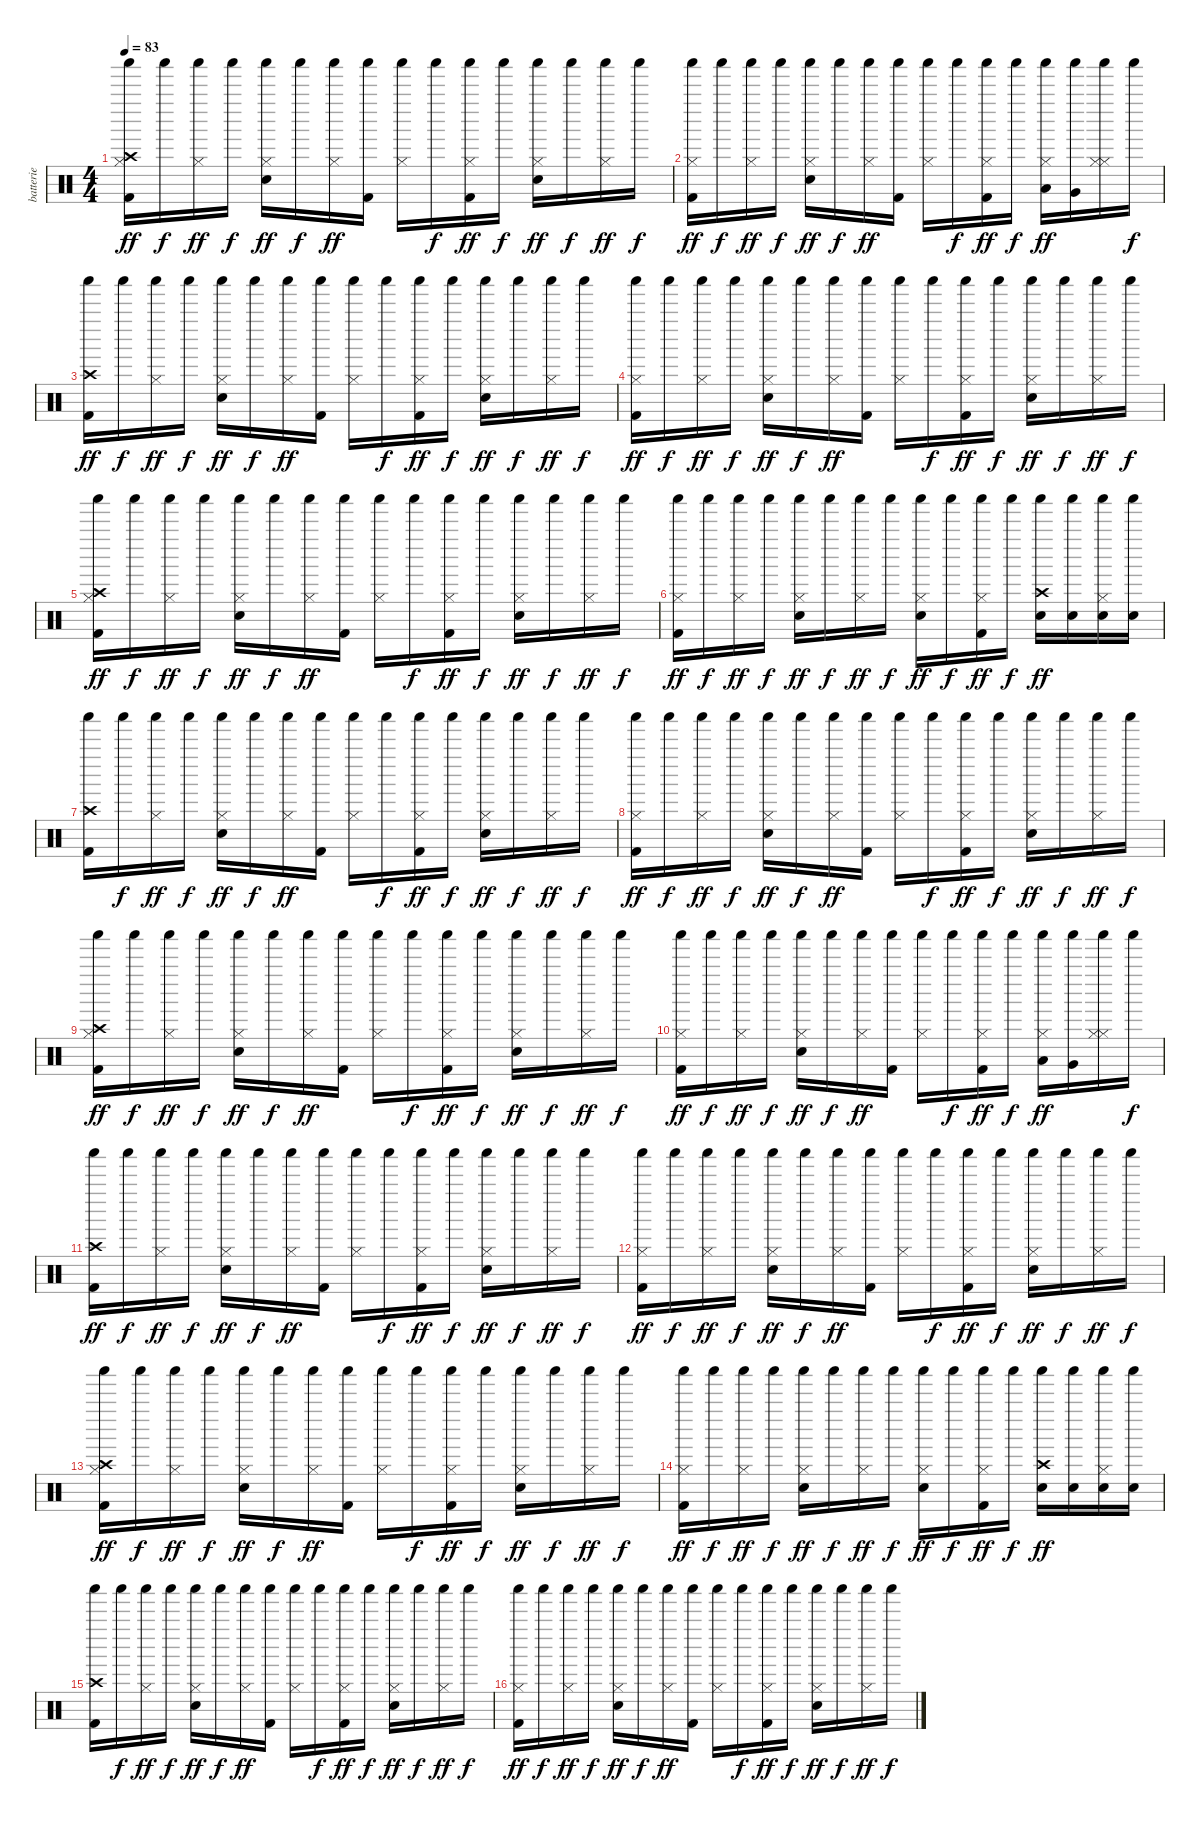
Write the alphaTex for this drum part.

\track ("batterie" "batterie") {instrument percussion}
\staff {score}
\articulation defaults
\ts (4 4)
\tempo 83
\clef neutral
\ks c
("Kick (hit) 2" "Hi-Hat (closed)" "Crash high (hit)" "Shaker (hit)").16{dy ff} "Shaker (hit)".16{dy f} ("Hi-Hat (closed)" "Shaker (hit)").16{dy ff} "Shaker (hit)".16{dy f} ("Snare (hit) 2" "Hi-Hat (closed)" "Shaker (hit)").16{dy ff} "Shaker (hit)".16{dy f} ("Hi-Hat (closed)" "Shaker (hit)").16{dy ff} ("Kick (hit) 2" "Shaker (hit)").16 ("Hi-Hat (closed)" "Shaker (hit)").16 "Shaker (hit)".16{dy f} ("Kick (hit) 2" "Hi-Hat (closed)" "Shaker (hit)").16{dy ff} "Shaker (hit)".16{dy f} ("Snare (hit) 2" "Hi-Hat (closed)" "Shaker (hit)").16{dy ff} "Shaker (hit)".16{dy f} ("Hi-Hat (closed)" "Shaker (hit)").16{dy ff} "Shaker (hit)".16{dy f} |
("Kick (hit) 2" "Hi-Hat (closed)" "Shaker (hit)").16{dy ff} "Shaker (hit)".16{dy f} ("Hi-Hat (closed)" "Shaker (hit)").16{dy ff} "Shaker (hit)".16{dy f} ("Snare (hit) 2" "Hi-Hat (closed)" "Shaker (hit)").16{dy ff} "Shaker (hit)".16{dy f} ("Hi-Hat (closed)" "Shaker (hit)").16{dy ff} ("Kick (hit) 2" "Shaker (hit)").16 ("Hi-Hat (closed)" "Shaker (hit)").16 "Shaker (hit)".16{dy f} ("Kick (hit) 2" "Hi-Hat (closed)" "Shaker (hit)").16{dy ff} "Shaker (hit)".16{dy f} ("Hi-Hat (closed)" "Low Tom (hit)" "Shaker (hit)").16{dy ff} ("Very Low Tom (hit)" "Shaker (hit)").16 ("Hi-Hat (closed)" "Hi-Hat (closed)" "Shaker (hit)").16 "Shaker (hit)".16{dy f} |
("Kick (hit) 2" "Crash high (hit)" "Shaker (hit)").16{dy ff} "Shaker (hit)".16{dy f} ("Hi-Hat (closed)" "Shaker (hit)").16{dy ff} "Shaker (hit)".16{dy f} ("Snare (hit) 2" "Hi-Hat (closed)" "Shaker (hit)").16{dy ff} "Shaker (hit)".16{dy f} ("Hi-Hat (closed)" "Shaker (hit)").16{dy ff} ("Kick (hit) 2" "Shaker (hit)").16 ("Hi-Hat (closed)" "Shaker (hit)").16 "Shaker (hit)".16{dy f} ("Kick (hit) 2" "Hi-Hat (closed)" "Shaker (hit)").16{dy ff} "Shaker (hit)".16{dy f} ("Snare (hit) 2" "Hi-Hat (closed)" "Shaker (hit)").16{dy ff} "Shaker (hit)".16{dy f} ("Hi-Hat (closed)" "Shaker (hit)").16{dy ff} "Shaker (hit)".16{dy f} |
("Kick (hit) 2" "Hi-Hat (closed)" "Shaker (hit)").16{dy ff} "Shaker (hit)".16{dy f} ("Hi-Hat (closed)" "Shaker (hit)").16{dy ff} "Shaker (hit)".16{dy f} ("Snare (hit) 2" "Hi-Hat (closed)" "Shaker (hit)").16{dy ff} "Shaker (hit)".16{dy f} ("Hi-Hat (closed)" "Shaker (hit)").16{dy ff} ("Kick (hit) 2" "Shaker (hit)").16 ("Hi-Hat (closed)" "Shaker (hit)").16 "Shaker (hit)".16{dy f} ("Kick (hit) 2" "Hi-Hat (closed)" "Shaker (hit)").16{dy ff} "Shaker (hit)".16{dy f} ("Snare (hit) 2" "Hi-Hat (closed)" "Shaker (hit)").16{dy ff} "Shaker (hit)".16{dy f} ("Hi-Hat (closed)" "Shaker (hit)").16{dy ff} "Shaker (hit)".16{dy f} |
("Kick (hit) 2" "Hi-Hat (closed)" "Crash high (hit)" "Shaker (hit)").16{dy ff} "Shaker (hit)".16{dy f} ("Hi-Hat (closed)" "Shaker (hit)").16{dy ff} "Shaker (hit)".16{dy f} ("Snare (hit) 2" "Hi-Hat (closed)" "Shaker (hit)").16{dy ff} "Shaker (hit)".16{dy f} ("Hi-Hat (closed)" "Shaker (hit)").16{dy ff} ("Kick (hit) 2" "Shaker (hit)").16 ("Hi-Hat (closed)" "Shaker (hit)").16 "Shaker (hit)".16{dy f} ("Kick (hit) 2" "Hi-Hat (closed)" "Shaker (hit)").16{dy ff} "Shaker (hit)".16{dy f} ("Snare (hit) 2" "Hi-Hat (closed)" "Shaker (hit)").16{dy ff} "Shaker (hit)".16{dy f} ("Hi-Hat (closed)" "Shaker (hit)").16{dy ff} "Shaker (hit)".16{dy f} |
("Kick (hit) 2" "Hi-Hat (closed)" "Shaker (hit)").16{dy ff} "Shaker (hit)".16{dy f} ("Hi-Hat (closed)" "Shaker (hit)").16{dy ff} "Shaker (hit)".16{dy f} ("Snare (hit) 2" "Hi-Hat (closed)" "Shaker (hit)").16{dy ff} "Shaker (hit)".16{dy f} ("Hi-Hat (closed)" "Shaker (hit)").16{dy ff} "Shaker (hit)".16{dy f} ("Snare (hit) 2" "Hi-Hat (closed)" "Shaker (hit)").16{dy ff} "Shaker (hit)".16{dy f} ("Kick (hit) 2" "Hi-Hat (closed)" "Shaker (hit)").16{dy ff} "Shaker (hit)".16{dy f} ("Snare (hit) 2" "Crash high (hit)" "Shaker (hit)").16{dy ff} ("Snare (hit) 2" "Shaker (hit)").16 ("Snare (hit) 2" "Hi-Hat (closed)" "Shaker (hit)").16 ("Snare (hit) 2" "Shaker (hit)").16 |
("Kick (hit) 2" "Crash high (hit)" "Shaker (hit)").16 "Shaker (hit)".16{dy f} ("Hi-Hat (closed)" "Shaker (hit)").16{dy ff} "Shaker (hit)".16{dy f} ("Snare (hit) 2" "Hi-Hat (closed)" "Shaker (hit)").16{dy ff} "Shaker (hit)".16{dy f} ("Hi-Hat (closed)" "Shaker (hit)").16{dy ff} ("Kick (hit) 2" "Shaker (hit)").16 ("Hi-Hat (closed)" "Shaker (hit)").16 "Shaker (hit)".16{dy f} ("Kick (hit) 2" "Hi-Hat (closed)" "Shaker (hit)").16{dy ff} "Shaker (hit)".16{dy f} ("Snare (hit) 2" "Hi-Hat (closed)" "Shaker (hit)").16{dy ff} "Shaker (hit)".16{dy f} ("Hi-Hat (closed)" "Shaker (hit)").16{dy ff} "Shaker (hit)".16{dy f} |
("Kick (hit) 2" "Hi-Hat (closed)" "Shaker (hit)").16{dy ff} "Shaker (hit)".16{dy f} ("Hi-Hat (closed)" "Shaker (hit)").16{dy ff} "Shaker (hit)".16{dy f} ("Snare (hit) 2" "Hi-Hat (closed)" "Shaker (hit)").16{dy ff} "Shaker (hit)".16{dy f} ("Hi-Hat (closed)" "Shaker (hit)").16{dy ff} ("Kick (hit) 2" "Shaker (hit)").16 ("Hi-Hat (closed)" "Shaker (hit)").16 "Shaker (hit)".16{dy f} ("Kick (hit) 2" "Hi-Hat (closed)" "Shaker (hit)").16{dy ff} "Shaker (hit)".16{dy f} ("Snare (hit) 2" "Hi-Hat (closed)" "Shaker (hit)").16{dy ff} "Shaker (hit)".16{dy f} ("Hi-Hat (closed)" "Shaker (hit)").16{dy ff} "Shaker (hit)".16{dy f} |
("Kick (hit) 2" "Hi-Hat (closed)" "Crash high (hit)" "Shaker (hit)").16{dy ff} "Shaker (hit)".16{dy f} ("Hi-Hat (closed)" "Shaker (hit)").16{dy ff} "Shaker (hit)".16{dy f} ("Snare (hit) 2" "Hi-Hat (closed)" "Shaker (hit)").16{dy ff} "Shaker (hit)".16{dy f} ("Hi-Hat (closed)" "Shaker (hit)").16{dy ff} ("Kick (hit) 2" "Shaker (hit)").16 ("Hi-Hat (closed)" "Shaker (hit)").16 "Shaker (hit)".16{dy f} ("Kick (hit) 2" "Hi-Hat (closed)" "Shaker (hit)").16{dy ff} "Shaker (hit)".16{dy f} ("Snare (hit) 2" "Hi-Hat (closed)" "Shaker (hit)").16{dy ff} "Shaker (hit)".16{dy f} ("Hi-Hat (closed)" "Shaker (hit)").16{dy ff} "Shaker (hit)".16{dy f} |
("Kick (hit) 2" "Hi-Hat (closed)" "Shaker (hit)").16{dy ff} "Shaker (hit)".16{dy f} ("Hi-Hat (closed)" "Shaker (hit)").16{dy ff} "Shaker (hit)".16{dy f} ("Snare (hit) 2" "Hi-Hat (closed)" "Shaker (hit)").16{dy ff} "Shaker (hit)".16{dy f} ("Hi-Hat (closed)" "Shaker (hit)").16{dy ff} ("Kick (hit) 2" "Shaker (hit)").16 ("Hi-Hat (closed)" "Shaker (hit)").16 "Shaker (hit)".16{dy f} ("Kick (hit) 2" "Hi-Hat (closed)" "Shaker (hit)").16{dy ff} "Shaker (hit)".16{dy f} ("Hi-Hat (closed)" "Low Tom (hit)" "Shaker (hit)").16{dy ff} ("Very Low Tom (hit)" "Shaker (hit)").16 ("Hi-Hat (closed)" "Hi-Hat (closed)" "Shaker (hit)").16 "Shaker (hit)".16{dy f} |
("Kick (hit) 2" "Crash high (hit)" "Shaker (hit)").16{dy ff} "Shaker (hit)".16{dy f} ("Hi-Hat (closed)" "Shaker (hit)").16{dy ff} "Shaker (hit)".16{dy f} ("Snare (hit) 2" "Hi-Hat (closed)" "Shaker (hit)").16{dy ff} "Shaker (hit)".16{dy f} ("Hi-Hat (closed)" "Shaker (hit)").16{dy ff} ("Kick (hit) 2" "Shaker (hit)").16 ("Hi-Hat (closed)" "Shaker (hit)").16 "Shaker (hit)".16{dy f} ("Kick (hit) 2" "Hi-Hat (closed)" "Shaker (hit)").16{dy ff} "Shaker (hit)".16{dy f} ("Snare (hit) 2" "Hi-Hat (closed)" "Shaker (hit)").16{dy ff} "Shaker (hit)".16{dy f} ("Hi-Hat (closed)" "Shaker (hit)").16{dy ff} "Shaker (hit)".16{dy f} |
("Kick (hit) 2" "Hi-Hat (closed)" "Shaker (hit)").16{dy ff} "Shaker (hit)".16{dy f} ("Hi-Hat (closed)" "Shaker (hit)").16{dy ff} "Shaker (hit)".16{dy f} ("Snare (hit) 2" "Hi-Hat (closed)" "Shaker (hit)").16{dy ff} "Shaker (hit)".16{dy f} ("Hi-Hat (closed)" "Shaker (hit)").16{dy ff} ("Kick (hit) 2" "Shaker (hit)").16 ("Hi-Hat (closed)" "Shaker (hit)").16 "Shaker (hit)".16{dy f} ("Kick (hit) 2" "Hi-Hat (closed)" "Shaker (hit)").16{dy ff} "Shaker (hit)".16{dy f} ("Snare (hit) 2" "Hi-Hat (closed)" "Shaker (hit)").16{dy ff} "Shaker (hit)".16{dy f} ("Hi-Hat (closed)" "Shaker (hit)").16{dy ff} "Shaker (hit)".16{dy f} |
("Kick (hit) 2" "Hi-Hat (closed)" "Crash high (hit)" "Shaker (hit)").16{dy ff} "Shaker (hit)".16{dy f} ("Hi-Hat (closed)" "Shaker (hit)").16{dy ff} "Shaker (hit)".16{dy f} ("Snare (hit) 2" "Hi-Hat (closed)" "Shaker (hit)").16{dy ff} "Shaker (hit)".16{dy f} ("Hi-Hat (closed)" "Shaker (hit)").16{dy ff} ("Kick (hit) 2" "Shaker (hit)").16 ("Hi-Hat (closed)" "Shaker (hit)").16 "Shaker (hit)".16{dy f} ("Kick (hit) 2" "Hi-Hat (closed)" "Shaker (hit)").16{dy ff} "Shaker (hit)".16{dy f} ("Snare (hit) 2" "Hi-Hat (closed)" "Shaker (hit)").16{dy ff} "Shaker (hit)".16{dy f} ("Hi-Hat (closed)" "Shaker (hit)").16{dy ff} "Shaker (hit)".16{dy f} |
("Kick (hit) 2" "Hi-Hat (closed)" "Shaker (hit)").16{dy ff} "Shaker (hit)".16{dy f} ("Hi-Hat (closed)" "Shaker (hit)").16{dy ff} "Shaker (hit)".16{dy f} ("Snare (hit) 2" "Hi-Hat (closed)" "Shaker (hit)").16{dy ff} "Shaker (hit)".16{dy f} ("Hi-Hat (closed)" "Shaker (hit)").16{dy ff} "Shaker (hit)".16{dy f} ("Snare (hit) 2" "Hi-Hat (closed)" "Shaker (hit)").16{dy ff} "Shaker (hit)".16{dy f} ("Kick (hit) 2" "Hi-Hat (closed)" "Shaker (hit)").16{dy ff} "Shaker (hit)".16{dy f} ("Snare (hit) 2" "Crash high (hit)" "Shaker (hit)").16{dy ff} ("Snare (hit) 2" "Shaker (hit)").16 ("Snare (hit) 2" "Hi-Hat (closed)" "Shaker (hit)").16 ("Snare (hit) 2" "Shaker (hit)").16 |
("Kick (hit) 2" "Crash high (hit)" "Shaker (hit)").16 "Shaker (hit)".16{dy f} ("Hi-Hat (closed)" "Shaker (hit)").16{dy ff} "Shaker (hit)".16{dy f} ("Snare (hit) 2" "Hi-Hat (closed)" "Shaker (hit)").16{dy ff} "Shaker (hit)".16{dy f} ("Hi-Hat (closed)" "Shaker (hit)").16{dy ff} ("Kick (hit) 2" "Shaker (hit)").16 ("Hi-Hat (closed)" "Shaker (hit)").16 "Shaker (hit)".16{dy f} ("Kick (hit) 2" "Hi-Hat (closed)" "Shaker (hit)").16{dy ff} "Shaker (hit)".16{dy f} ("Snare (hit) 2" "Hi-Hat (closed)" "Shaker (hit)").16{dy ff} "Shaker (hit)".16{dy f} ("Hi-Hat (closed)" "Shaker (hit)").16{dy ff} "Shaker (hit)".16{dy f} |
("Kick (hit) 2" "Hi-Hat (closed)" "Shaker (hit)").16{dy ff} "Shaker (hit)".16{dy f} ("Hi-Hat (closed)" "Shaker (hit)").16{dy ff} "Shaker (hit)".16{dy f} ("Snare (hit) 2" "Hi-Hat (closed)" "Shaker (hit)").16{dy ff} "Shaker (hit)".16{dy f} ("Hi-Hat (closed)" "Shaker (hit)").16{dy ff} ("Kick (hit) 2" "Shaker (hit)").16 ("Hi-Hat (closed)" "Shaker (hit)").16 "Shaker (hit)".16{dy f} ("Kick (hit) 2" "Hi-Hat (closed)" "Shaker (hit)").16{dy ff} "Shaker (hit)".16{dy f} ("Snare (hit) 2" "Hi-Hat (closed)" "Shaker (hit)").16{dy ff} "Shaker (hit)".16{dy f} ("Hi-Hat (closed)" "Shaker (hit)").16{dy ff} "Shaker (hit)".16{dy f}
